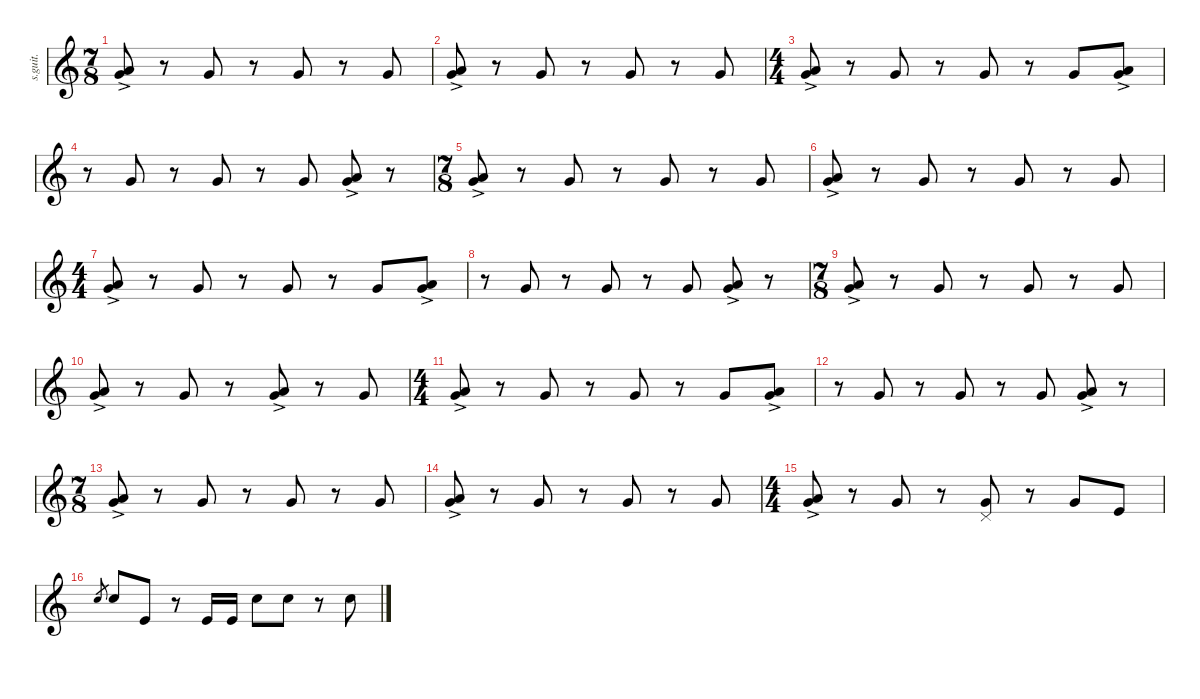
\defaultSystemsLayout 4
\hideDynamics
\bracketExtendMode nobrackets
\track ("Matt Halpern" "s.guit.") {instrument percussion}
\staff {score}
\articulation defaults
\ts (7 8)
\beaming (8 2 2 2 2)
\tempo (213 hide)
\clef g2
\ks c
("Very Low Tom (hit)"{ac} "Low Tom (hit)"{ac}).8{lyrics (0 "") lyrics (1 "") lyrics (2 "") lyrics (3 "") lyrics (4 "") dy mf} r.8 "Very Low Tom (hit)".8{lyrics (0 "") lyrics (1 "") lyrics (2 "") lyrics (3 "") lyrics (4 "")} r.8 "Very Low Tom (hit)".8{lyrics (0 "") lyrics (1 "") lyrics (2 "") lyrics (3 "") lyrics (4 "")} r.8 "Very Low Tom (hit)".8{lyrics (0 "") lyrics (1 "") lyrics (2 "") lyrics (3 "") lyrics (4 "")} |
("Very Low Tom (hit)"{ac} "Low Tom (hit)"{ac}).8{lyrics (0 "") lyrics (1 "") lyrics (2 "") lyrics (3 "") lyrics (4 "")} r.8 "Very Low Tom (hit)".8{lyrics (0 "") lyrics (1 "") lyrics (2 "") lyrics (3 "") lyrics (4 "")} r.8 "Very Low Tom (hit)".8{lyrics (0 "") lyrics (1 "") lyrics (2 "") lyrics (3 "") lyrics (4 "")} r.8 "Very Low Tom (hit)".8{lyrics (0 "") lyrics (1 "") lyrics (2 "") lyrics (3 "") lyrics (4 "")} |
\ts (4 4)
\beaming (8 2 2 2 2)
("Very Low Tom (hit)"{ac} "Low Tom (hit)"{ac}).8{lyrics (0 "") lyrics (1 "") lyrics (2 "") lyrics (3 "") lyrics (4 "")} r.8 "Very Low Tom (hit)".8{lyrics (0 "") lyrics (1 "") lyrics (2 "") lyrics (3 "") lyrics (4 "")} r.8 "Very Low Tom (hit)".8{lyrics (0 "") lyrics (1 "") lyrics (2 "") lyrics (3 "") lyrics (4 "")} r.8 "Very Low Tom (hit)".8{lyrics (0 "") lyrics (1 "") lyrics (2 "") lyrics (3 "") lyrics (4 "")} ("Very Low Tom (hit)"{ac} "Low Tom (hit)"{ac}).8{lyrics (0 "") lyrics (1 "") lyrics (2 "") lyrics (3 "") lyrics (4 "")} |
r.8 "Very Low Tom (hit)".8{lyrics (0 "") lyrics (1 "") lyrics (2 "") lyrics (3 "") lyrics (4 "")} r.8 "Very Low Tom (hit)".8{lyrics (0 "") lyrics (1 "") lyrics (2 "") lyrics (3 "") lyrics (4 "")} r.8 "Very Low Tom (hit)".8{lyrics (0 "") lyrics (1 "") lyrics (2 "") lyrics (3 "") lyrics (4 "")} ("Very Low Tom (hit)"{ac} "Low Tom (hit)"{ac}).8{lyrics (0 "") lyrics (1 "") lyrics (2 "") lyrics (3 "") lyrics (4 "")} r.8 |
\ts (7 8)
\beaming (8 2 2 2 2)
("Very Low Tom (hit)"{ac} "Low Tom (hit)"{ac}).8{lyrics (0 "") lyrics (1 "") lyrics (2 "") lyrics (3 "") lyrics (4 "")} r.8 "Very Low Tom (hit)".8{lyrics (0 "") lyrics (1 "") lyrics (2 "") lyrics (3 "") lyrics (4 "")} r.8 "Very Low Tom (hit)".8{lyrics (0 "") lyrics (1 "") lyrics (2 "") lyrics (3 "") lyrics (4 "")} r.8 "Very Low Tom (hit)".8{lyrics (0 "") lyrics (1 "") lyrics (2 "") lyrics (3 "") lyrics (4 "")} |
("Very Low Tom (hit)"{ac} "Low Tom (hit)"{ac}).8{lyrics (0 "") lyrics (1 "") lyrics (2 "") lyrics (3 "") lyrics (4 "")} r.8 "Very Low Tom (hit)".8{lyrics (0 "") lyrics (1 "") lyrics (2 "") lyrics (3 "") lyrics (4 "")} r.8 "Very Low Tom (hit)".8{lyrics (0 "") lyrics (1 "") lyrics (2 "") lyrics (3 "") lyrics (4 "")} r.8 "Very Low Tom (hit)".8{lyrics (0 "") lyrics (1 "") lyrics (2 "") lyrics (3 "") lyrics (4 "")} |
\ts (4 4)
\beaming (8 2 2 2 2)
("Very Low Tom (hit)"{ac} "Low Tom (hit)"{ac}).8{lyrics (0 "") lyrics (1 "") lyrics (2 "") lyrics (3 "") lyrics (4 "")} r.8 "Very Low Tom (hit)".8{lyrics (0 "") lyrics (1 "") lyrics (2 "") lyrics (3 "") lyrics (4 "")} r.8 "Very Low Tom (hit)".8{lyrics (0 "") lyrics (1 "") lyrics (2 "") lyrics (3 "") lyrics (4 "")} r.8 "Very Low Tom (hit)".8{lyrics (0 "") lyrics (1 "") lyrics (2 "") lyrics (3 "") lyrics (4 "")} ("Very Low Tom (hit)"{ac} "Low Tom (hit)"{ac}).8{lyrics (0 "") lyrics (1 "") lyrics (2 "") lyrics (3 "") lyrics (4 "")} |
r.8 "Very Low Tom (hit)".8{lyrics (0 "") lyrics (1 "") lyrics (2 "") lyrics (3 "") lyrics (4 "")} r.8 "Very Low Tom (hit)".8{lyrics (0 "") lyrics (1 "") lyrics (2 "") lyrics (3 "") lyrics (4 "")} r.8 "Very Low Tom (hit)".8{lyrics (0 "") lyrics (1 "") lyrics (2 "") lyrics (3 "") lyrics (4 "")} ("Very Low Tom (hit)"{ac} "Low Tom (hit)"{ac}).8{lyrics (0 "") lyrics (1 "") lyrics (2 "") lyrics (3 "") lyrics (4 "")} r.8 |
\ts (7 8)
\beaming (8 2 2 2 2)
("Very Low Tom (hit)"{ac} "Low Tom (hit)"{ac}).8{lyrics (0 "") lyrics (1 "") lyrics (2 "") lyrics (3 "") lyrics (4 "")} r.8 "Very Low Tom (hit)".8{lyrics (0 "") lyrics (1 "") lyrics (2 "") lyrics (3 "") lyrics (4 "")} r.8 "Very Low Tom (hit)".8{lyrics (0 "") lyrics (1 "") lyrics (2 "") lyrics (3 "") lyrics (4 "")} r.8 "Very Low Tom (hit)".8{lyrics (0 "") lyrics (1 "") lyrics (2 "") lyrics (3 "") lyrics (4 "")} |
("Very Low Tom (hit)"{ac} "Low Tom (hit)"{ac}).8{lyrics (0 "") lyrics (1 "") lyrics (2 "") lyrics (3 "") lyrics (4 "")} r.8 "Very Low Tom (hit)".8{lyrics (0 "") lyrics (1 "") lyrics (2 "") lyrics (3 "") lyrics (4 "")} r.8 ("Very Low Tom (hit)"{ac} "Low Tom (hit)"{ac}).8{lyrics (0 "") lyrics (1 "") lyrics (2 "") lyrics (3 "") lyrics (4 "")} r.8 "Very Low Tom (hit)".8{lyrics (0 "") lyrics (1 "") lyrics (2 "") lyrics (3 "") lyrics (4 "")} |
\ts (4 4)
\beaming (8 2 2 2 2)
("Very Low Tom (hit)"{ac} "Low Tom (hit)"{ac}).8{lyrics (0 "") lyrics (1 "") lyrics (2 "") lyrics (3 "") lyrics (4 "")} r.8 "Very Low Tom (hit)".8{lyrics (0 "") lyrics (1 "") lyrics (2 "") lyrics (3 "") lyrics (4 "")} r.8 "Very Low Tom (hit)".8{lyrics (0 "") lyrics (1 "") lyrics (2 "") lyrics (3 "") lyrics (4 "")} r.8 "Very Low Tom (hit)".8{lyrics (0 "") lyrics (1 "") lyrics (2 "") lyrics (3 "") lyrics (4 "")} ("Very Low Tom (hit)"{ac} "Low Tom (hit)"{ac}).8{lyrics (0 "") lyrics (1 "") lyrics (2 "") lyrics (3 "") lyrics (4 "")} |
r.8 "Very Low Tom (hit)".8{lyrics (0 "") lyrics (1 "") lyrics (2 "") lyrics (3 "") lyrics (4 "")} r.8 "Very Low Tom (hit)".8{lyrics (0 "") lyrics (1 "") lyrics (2 "") lyrics (3 "") lyrics (4 "")} r.8 "Very Low Tom (hit)".8{lyrics (0 "") lyrics (1 "") lyrics (2 "") lyrics (3 "") lyrics (4 "")} ("Very Low Tom (hit)"{ac} "Low Tom (hit)"{ac}).8{lyrics (0 "") lyrics (1 "") lyrics (2 "") lyrics (3 "") lyrics (4 "")} r.8 |
\ts (7 8)
\beaming (8 2 2 2 2)
("Very Low Tom (hit)"{ac} "Low Tom (hit)"{ac}).8{lyrics (0 "") lyrics (1 "") lyrics (2 "") lyrics (3 "") lyrics (4 "")} r.8 "Very Low Tom (hit)".8{lyrics (0 "") lyrics (1 "") lyrics (2 "") lyrics (3 "") lyrics (4 "")} r.8 "Very Low Tom (hit)".8{lyrics (0 "") lyrics (1 "") lyrics (2 "") lyrics (3 "") lyrics (4 "")} r.8 "Very Low Tom (hit)".8{lyrics (0 "") lyrics (1 "") lyrics (2 "") lyrics (3 "") lyrics (4 "")} |
("Very Low Tom (hit)"{ac} "Low Tom (hit)"{ac}).8{lyrics (0 "") lyrics (1 "") lyrics (2 "") lyrics (3 "") lyrics (4 "")} r.8 "Very Low Tom (hit)".8{lyrics (0 "") lyrics (1 "") lyrics (2 "") lyrics (3 "") lyrics (4 "")} r.8 "Very Low Tom (hit)".8{lyrics (0 "") lyrics (1 "") lyrics (2 "") lyrics (3 "") lyrics (4 "")} r.8 "Very Low Tom (hit)".8{lyrics (0 "") lyrics (1 "") lyrics (2 "") lyrics (3 "") lyrics (4 "")} |
\ts (4 4)
\beaming (8 2 2 2 2)
("Very Low Tom (hit)"{ac} "Low Tom (hit)"{ac}).8{lyrics (0 "") lyrics (1 "") lyrics (2 "") lyrics (3 "") lyrics (4 "")} r.8 "Very Low Tom (hit)".8{lyrics (0 "") lyrics (1 "") lyrics (2 "") lyrics (3 "") lyrics (4 "")} r.8 ("Pedal Hi-Hat (hit)" "Very Low Tom (hit)").8{lyrics (0 "") lyrics (1 "") lyrics (2 "") lyrics (3 "") lyrics (4 "")} r.8 "Very Low Tom (hit)".8{lyrics (0 "") lyrics (1 "") lyrics (2 "") lyrics (3 "") lyrics (4 "")} "Kick (hit)".8{lyrics (0 "") lyrics (1 "") lyrics (2 "") lyrics (3 "") lyrics (4 "")} |
"Snare (hit) 2".8{lyrics (0 "") lyrics (1 "") lyrics (2 "") lyrics (3 "") lyrics (4 "") gr} "Snare (hit) 2".8{lyrics (0 "") lyrics (1 "") lyrics (2 "") lyrics (3 "") lyrics (4 "")} "Kick (hit)".8{lyrics (0 "") lyrics (1 "") lyrics (2 "") lyrics (3 "") lyrics (4 "")} r.8 "Kick (hit)".16{lyrics (0 "") lyrics (1 "") lyrics (2 "") lyrics (3 "") lyrics (4 "")} "Kick (hit)".16{lyrics (0 "") lyrics (1 "") lyrics (2 "") lyrics (3 "") lyrics (4 "")} "Snare (hit) 2".8{lyrics (0 "") lyrics (1 "") lyrics (2 "") lyrics (3 "") lyrics (4 "")} "Snare (hit) 2".8{lyrics (0 "") lyrics (1 "") lyrics (2 "") lyrics (3 "") lyrics (4 "")} r.8 "Snare (hit) 2".8{lyrics (0 "") lyrics (1 "") lyrics (2 "") lyrics (3 "") lyrics (4 "")}
